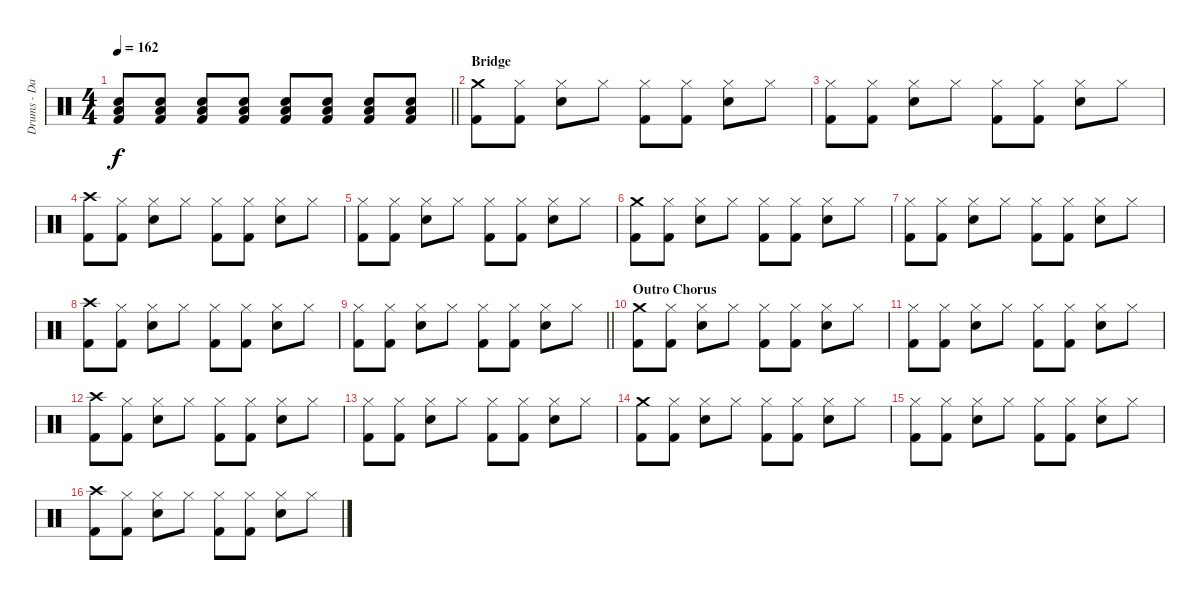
\track ("Drums - David Holland" "Drums - Da") {instrument percussion}
\staff {score}
\articulation defaults
\ts (4 4)
\tempo 162
\clef neutral
\barLineRight lightlight
\ks c
("Low Floor Tom (hit)" "Snare (hit) 2" "Kick (hit) 2").8{dy f} ("Low Floor Tom (hit)" "Snare (hit) 2" "Kick (hit) 2").8 ("Low Floor Tom (hit)" "Snare (hit) 2" "Kick (hit) 2").8 ("Low Floor Tom (hit)" "Snare (hit) 2" "Kick (hit) 2").8 ("Low Floor Tom (hit)" "Snare (hit) 2" "Kick (hit) 2").8 ("Low Floor Tom (hit)" "Snare (hit) 2" "Kick (hit) 2").8 ("Low Floor Tom (hit)" "Snare (hit) 2" "Kick (hit) 2").8 ("Low Floor Tom (hit)" "Snare (hit) 2" "Kick (hit) 2").8 |
\section ("" "Bridge")
("Crash medium (hit)" "Kick (hit) 2").8 ("Hi-Hat (closed)" "Kick (hit) 2").8 ("Hi-Hat (closed)" "Snare (hit) 2").8 "Hi-Hat (closed)".8 ("Hi-Hat (closed)" "Kick (hit) 2").8 ("Hi-Hat (closed)" "Kick (hit) 2").8 ("Hi-Hat (closed)" "Snare (hit) 2").8 "Hi-Hat (closed)".8 |
("Hi-Hat (closed)" "Kick (hit) 2").8 ("Hi-Hat (closed)" "Kick (hit) 2").8 ("Hi-Hat (closed)" "Snare (hit) 2").8 "Hi-Hat (closed)".8 ("Hi-Hat (closed)" "Kick (hit) 2").8 ("Hi-Hat (closed)" "Kick (hit) 2").8 ("Hi-Hat (closed)" "Snare (hit) 2").8 "Hi-Hat (closed)".8 |
("Crash high (hit)" "Kick (hit) 2").8 ("Hi-Hat (closed)" "Kick (hit) 2").8 ("Hi-Hat (closed)" "Snare (hit) 2").8 "Hi-Hat (closed)".8 ("Hi-Hat (closed)" "Kick (hit) 2").8 ("Hi-Hat (closed)" "Kick (hit) 2").8 ("Hi-Hat (closed)" "Snare (hit) 2").8 "Hi-Hat (closed)".8 |
("Hi-Hat (closed)" "Kick (hit) 2").8 ("Hi-Hat (closed)" "Kick (hit) 2").8 ("Hi-Hat (closed)" "Snare (hit) 2").8 "Hi-Hat (closed)".8 ("Hi-Hat (closed)" "Kick (hit) 2").8 ("Hi-Hat (closed)" "Kick (hit) 2").8 ("Hi-Hat (closed)" "Snare (hit) 2").8 "Hi-Hat (closed)".8 |
("Crash medium (hit)" "Kick (hit) 2").8 ("Hi-Hat (closed)" "Kick (hit) 2").8 ("Hi-Hat (closed)" "Snare (hit) 2").8 "Hi-Hat (closed)".8 ("Hi-Hat (closed)" "Kick (hit) 2").8 ("Hi-Hat (closed)" "Kick (hit) 2").8 ("Hi-Hat (closed)" "Snare (hit) 2").8 "Hi-Hat (closed)".8 |
("Hi-Hat (closed)" "Kick (hit) 2").8 ("Hi-Hat (closed)" "Kick (hit) 2").8 ("Hi-Hat (closed)" "Snare (hit) 2").8 "Hi-Hat (closed)".8 ("Hi-Hat (closed)" "Kick (hit) 2").8 ("Hi-Hat (closed)" "Kick (hit) 2").8 ("Hi-Hat (closed)" "Snare (hit) 2").8 "Hi-Hat (closed)".8 |
("Crash high (hit)" "Kick (hit) 2").8 ("Hi-Hat (closed)" "Kick (hit) 2").8 ("Hi-Hat (closed)" "Snare (hit) 2").8 "Hi-Hat (closed)".8 ("Hi-Hat (closed)" "Kick (hit) 2").8 ("Hi-Hat (closed)" "Kick (hit) 2").8 ("Hi-Hat (closed)" "Snare (hit) 2").8 "Hi-Hat (closed)".8 |
\barLineRight lightlight
("Hi-Hat (closed)" "Kick (hit) 2").8 ("Hi-Hat (closed)" "Kick (hit) 2").8 ("Hi-Hat (closed)" "Snare (hit) 2").8 "Hi-Hat (closed)".8 ("Hi-Hat (closed)" "Kick (hit) 2").8 ("Hi-Hat (closed)" "Kick (hit) 2").8 ("Hi-Hat (closed)" "Snare (hit) 2").8 "Hi-Hat (closed)".8 |
\section ("" "Outro Chorus")
("Crash medium (hit)" "Kick (hit) 2").8 ("Hi-Hat (closed)" "Kick (hit) 2").8 ("Hi-Hat (closed)" "Snare (hit) 2").8 "Hi-Hat (closed)".8 ("Hi-Hat (closed)" "Kick (hit) 2").8 ("Hi-Hat (closed)" "Kick (hit) 2").8 ("Hi-Hat (closed)" "Snare (hit) 2").8 "Hi-Hat (closed)".8 |
("Hi-Hat (closed)" "Kick (hit) 2").8 ("Hi-Hat (closed)" "Kick (hit) 2").8 ("Hi-Hat (closed)" "Snare (hit) 2").8 "Hi-Hat (closed)".8 ("Hi-Hat (closed)" "Kick (hit) 2").8 ("Hi-Hat (closed)" "Kick (hit) 2").8 ("Hi-Hat (closed)" "Snare (hit) 2").8 "Hi-Hat (closed)".8 |
("Crash high (hit)" "Kick (hit) 2").8 ("Hi-Hat (closed)" "Kick (hit) 2").8 ("Hi-Hat (closed)" "Snare (hit) 2").8 "Hi-Hat (closed)".8 ("Hi-Hat (closed)" "Kick (hit) 2").8 ("Hi-Hat (closed)" "Kick (hit) 2").8 ("Hi-Hat (closed)" "Snare (hit) 2").8 "Hi-Hat (closed)".8 |
("Hi-Hat (closed)" "Kick (hit) 2").8 ("Hi-Hat (closed)" "Kick (hit) 2").8 ("Hi-Hat (closed)" "Snare (hit) 2").8 "Hi-Hat (closed)".8 ("Hi-Hat (closed)" "Kick (hit) 2").8 ("Hi-Hat (closed)" "Kick (hit) 2").8 ("Hi-Hat (closed)" "Snare (hit) 2").8 "Hi-Hat (closed)".8 |
("Crash medium (hit)" "Kick (hit) 2").8 ("Hi-Hat (closed)" "Kick (hit) 2").8 ("Hi-Hat (closed)" "Snare (hit) 2").8 "Hi-Hat (closed)".8 ("Hi-Hat (closed)" "Kick (hit) 2").8 ("Hi-Hat (closed)" "Kick (hit) 2").8 ("Hi-Hat (closed)" "Snare (hit) 2").8 "Hi-Hat (closed)".8 |
("Hi-Hat (closed)" "Kick (hit) 2").8 ("Hi-Hat (closed)" "Kick (hit) 2").8 ("Hi-Hat (closed)" "Snare (hit) 2").8 "Hi-Hat (closed)".8 ("Hi-Hat (closed)" "Kick (hit) 2").8 ("Hi-Hat (closed)" "Kick (hit) 2").8 ("Hi-Hat (closed)" "Snare (hit) 2").8 "Hi-Hat (closed)".8 |
("Crash high (hit)" "Kick (hit) 2").8 ("Hi-Hat (closed)" "Kick (hit) 2").8 ("Hi-Hat (closed)" "Snare (hit) 2").8 "Hi-Hat (closed)".8 ("Hi-Hat (closed)" "Kick (hit) 2").8 ("Hi-Hat (closed)" "Kick (hit) 2").8 ("Hi-Hat (closed)" "Snare (hit) 2").8 "Hi-Hat (closed)".8
